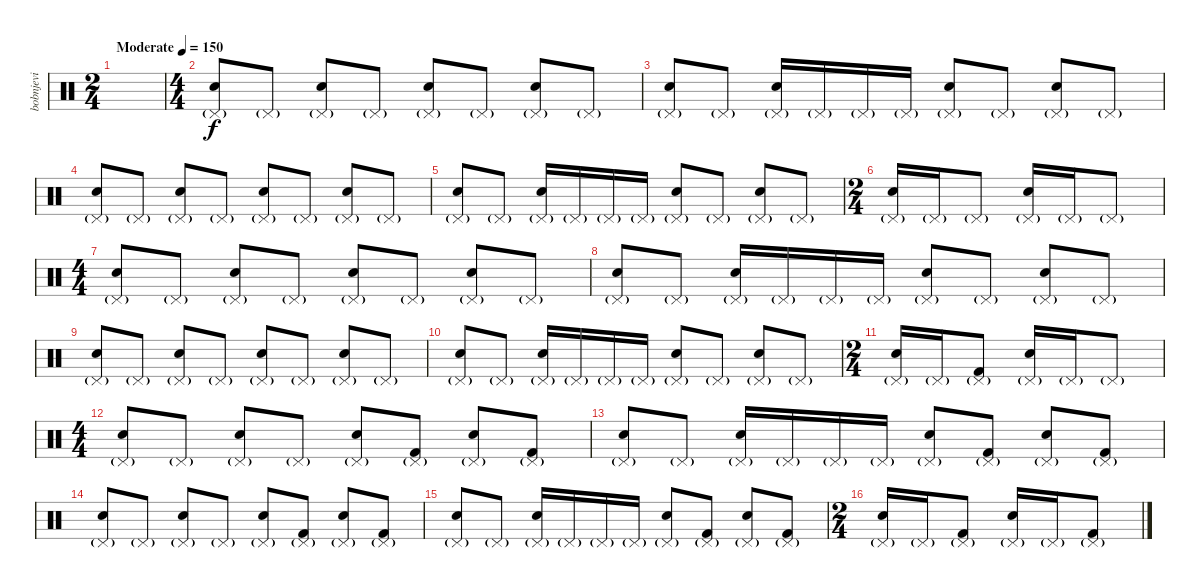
\track ("bobnjevi" "bobnjevi") {instrument percussion}
\staff {score}
\articulation defaults
\ts (2 4)
\tempo (150 "Moderate")
\clef neutral
\ks c
|
\ts (4 4)
("Pedal Hi-Hat (hit)"{g} "Snare (hit) 2").8 "Pedal Hi-Hat (hit)"{g}.8 ("Pedal Hi-Hat (hit)"{g} "Snare (hit) 2").8 "Pedal Hi-Hat (hit)"{g}.8 ("Pedal Hi-Hat (hit)"{g} "Snare (hit) 2").8 "Pedal Hi-Hat (hit)"{g}.8 ("Pedal Hi-Hat (hit)"{g} "Snare (hit) 2").8 "Pedal Hi-Hat (hit)"{g}.8 |
("Pedal Hi-Hat (hit)"{g} "Snare (hit) 2").8 "Pedal Hi-Hat (hit)"{g}.8 ("Pedal Hi-Hat (hit)"{g} "Snare (hit) 2").16 "Pedal Hi-Hat (hit)"{g}.16 "Pedal Hi-Hat (hit)"{g}.16 "Pedal Hi-Hat (hit)"{g}.16 ("Pedal Hi-Hat (hit)"{g} "Snare (hit) 2").8 "Pedal Hi-Hat (hit)"{g}.8 ("Pedal Hi-Hat (hit)"{g} "Snare (hit) 2").8 "Pedal Hi-Hat (hit)"{g}.8 |
("Pedal Hi-Hat (hit)"{g} "Snare (hit) 2").8 "Pedal Hi-Hat (hit)"{g}.8 ("Pedal Hi-Hat (hit)"{g} "Snare (hit) 2").8 "Pedal Hi-Hat (hit)"{g}.8 ("Pedal Hi-Hat (hit)"{g} "Snare (hit) 2").8 "Pedal Hi-Hat (hit)"{g}.8 ("Pedal Hi-Hat (hit)"{g} "Snare (hit) 2").8 "Pedal Hi-Hat (hit)"{g}.8 |
("Pedal Hi-Hat (hit)"{g} "Snare (hit) 2").8 "Pedal Hi-Hat (hit)"{g}.8 ("Pedal Hi-Hat (hit)"{g} "Snare (hit) 2").16 "Pedal Hi-Hat (hit)"{g}.16 "Pedal Hi-Hat (hit)"{g}.16 "Pedal Hi-Hat (hit)"{g}.16 ("Pedal Hi-Hat (hit)"{g} "Snare (hit) 2").8 "Pedal Hi-Hat (hit)"{g}.8 ("Pedal Hi-Hat (hit)"{g} "Snare (hit) 2").8 "Pedal Hi-Hat (hit)"{g}.8 |
\ts (2 4)
("Pedal Hi-Hat (hit)"{g} "Snare (hit) 2").16 "Pedal Hi-Hat (hit)"{g}.16 "Pedal Hi-Hat (hit)"{g}.8 ("Pedal Hi-Hat (hit)"{g} "Snare (hit) 2").16 "Pedal Hi-Hat (hit)"{g}.16 "Pedal Hi-Hat (hit)"{g}.8 |
\ts (4 4)
("Pedal Hi-Hat (hit)"{g} "Snare (hit) 2").8 "Pedal Hi-Hat (hit)"{g}.8 ("Pedal Hi-Hat (hit)"{g} "Snare (hit) 2").8 "Pedal Hi-Hat (hit)"{g}.8 ("Pedal Hi-Hat (hit)"{g} "Snare (hit) 2").8 "Pedal Hi-Hat (hit)"{g}.8 ("Pedal Hi-Hat (hit)"{g} "Snare (hit) 2").8 "Pedal Hi-Hat (hit)"{g}.8 |
("Pedal Hi-Hat (hit)"{g} "Snare (hit) 2").8 "Pedal Hi-Hat (hit)"{g}.8 ("Pedal Hi-Hat (hit)"{g} "Snare (hit) 2").16 "Pedal Hi-Hat (hit)"{g}.16 "Pedal Hi-Hat (hit)"{g}.16 "Pedal Hi-Hat (hit)"{g}.16 ("Pedal Hi-Hat (hit)"{g} "Snare (hit) 2").8 "Pedal Hi-Hat (hit)"{g}.8 ("Pedal Hi-Hat (hit)"{g} "Snare (hit) 2").8 "Pedal Hi-Hat (hit)"{g}.8 |
("Pedal Hi-Hat (hit)"{g} "Snare (hit) 2").8 "Pedal Hi-Hat (hit)"{g}.8 ("Pedal Hi-Hat (hit)"{g} "Snare (hit) 2").8 "Pedal Hi-Hat (hit)"{g}.8 ("Pedal Hi-Hat (hit)"{g} "Snare (hit) 2").8 "Pedal Hi-Hat (hit)"{g}.8 ("Pedal Hi-Hat (hit)"{g} "Snare (hit) 2").8 "Pedal Hi-Hat (hit)"{g}.8 |
("Pedal Hi-Hat (hit)"{g} "Snare (hit) 2").8 "Pedal Hi-Hat (hit)"{g}.8 ("Pedal Hi-Hat (hit)"{g} "Snare (hit) 2").16 "Pedal Hi-Hat (hit)"{g}.16 "Pedal Hi-Hat (hit)"{g}.16 "Pedal Hi-Hat (hit)"{g}.16 ("Pedal Hi-Hat (hit)"{g} "Snare (hit) 2").8 "Pedal Hi-Hat (hit)"{g}.8 ("Pedal Hi-Hat (hit)"{g} "Snare (hit) 2").8 "Pedal Hi-Hat (hit)"{g}.8 |
\ts (2 4)
("Pedal Hi-Hat (hit)"{g} "Snare (hit) 2").16 "Pedal Hi-Hat (hit)"{g}.16 ("Pedal Hi-Hat (hit)"{g} "Kick (hit) 2").8 ("Pedal Hi-Hat (hit)"{g} "Snare (hit) 2").16 "Pedal Hi-Hat (hit)"{g}.16 "Pedal Hi-Hat (hit)"{g}.8 |
\ts (4 4)
("Pedal Hi-Hat (hit)"{g} "Snare (hit) 2").8 "Pedal Hi-Hat (hit)"{g}.8 ("Pedal Hi-Hat (hit)"{g} "Snare (hit) 2").8 "Pedal Hi-Hat (hit)"{g}.8 ("Pedal Hi-Hat (hit)"{g} "Snare (hit) 2").8 ("Pedal Hi-Hat (hit)"{g} "Kick (hit) 2").8 ("Pedal Hi-Hat (hit)"{g} "Snare (hit) 2").8 ("Pedal Hi-Hat (hit)"{g} "Kick (hit) 2").8 |
("Pedal Hi-Hat (hit)"{g} "Snare (hit) 2").8 "Pedal Hi-Hat (hit)"{g}.8 ("Pedal Hi-Hat (hit)"{g} "Snare (hit) 2").16 "Pedal Hi-Hat (hit)"{g}.16 "Pedal Hi-Hat (hit)"{g}.16 "Pedal Hi-Hat (hit)"{g}.16 ("Pedal Hi-Hat (hit)"{g} "Snare (hit) 2").8 ("Pedal Hi-Hat (hit)"{g} "Kick (hit) 2").8 ("Pedal Hi-Hat (hit)"{g} "Snare (hit) 2").8 ("Pedal Hi-Hat (hit)"{g} "Kick (hit) 2").8 |
("Pedal Hi-Hat (hit)"{g} "Snare (hit) 2").8 "Pedal Hi-Hat (hit)"{g}.8 ("Pedal Hi-Hat (hit)"{g} "Snare (hit) 2").8 "Pedal Hi-Hat (hit)"{g}.8 ("Pedal Hi-Hat (hit)"{g} "Snare (hit) 2").8 ("Pedal Hi-Hat (hit)"{g} "Kick (hit) 2").8 ("Pedal Hi-Hat (hit)"{g} "Snare (hit) 2").8 ("Pedal Hi-Hat (hit)"{g} "Kick (hit) 2").8 |
("Pedal Hi-Hat (hit)"{g} "Snare (hit) 2").8 "Pedal Hi-Hat (hit)"{g}.8 ("Pedal Hi-Hat (hit)"{g} "Snare (hit) 2").16 "Pedal Hi-Hat (hit)"{g}.16 "Pedal Hi-Hat (hit)"{g}.16 "Pedal Hi-Hat (hit)"{g}.16 ("Pedal Hi-Hat (hit)"{g} "Snare (hit) 2").8 ("Pedal Hi-Hat (hit)"{g} "Kick (hit) 2").8 ("Pedal Hi-Hat (hit)"{g} "Snare (hit) 2").8 ("Pedal Hi-Hat (hit)"{g} "Kick (hit) 2").8 |
\ts (2 4)
("Pedal Hi-Hat (hit)"{g} "Snare (hit) 2").16 "Pedal Hi-Hat (hit)"{g}.16 ("Pedal Hi-Hat (hit)"{g} "Kick (hit) 2").8 ("Pedal Hi-Hat (hit)"{g} "Snare (hit) 2").16 "Pedal Hi-Hat (hit)"{g}.16 ("Pedal Hi-Hat (hit)"{g} "Kick (hit) 2").8
